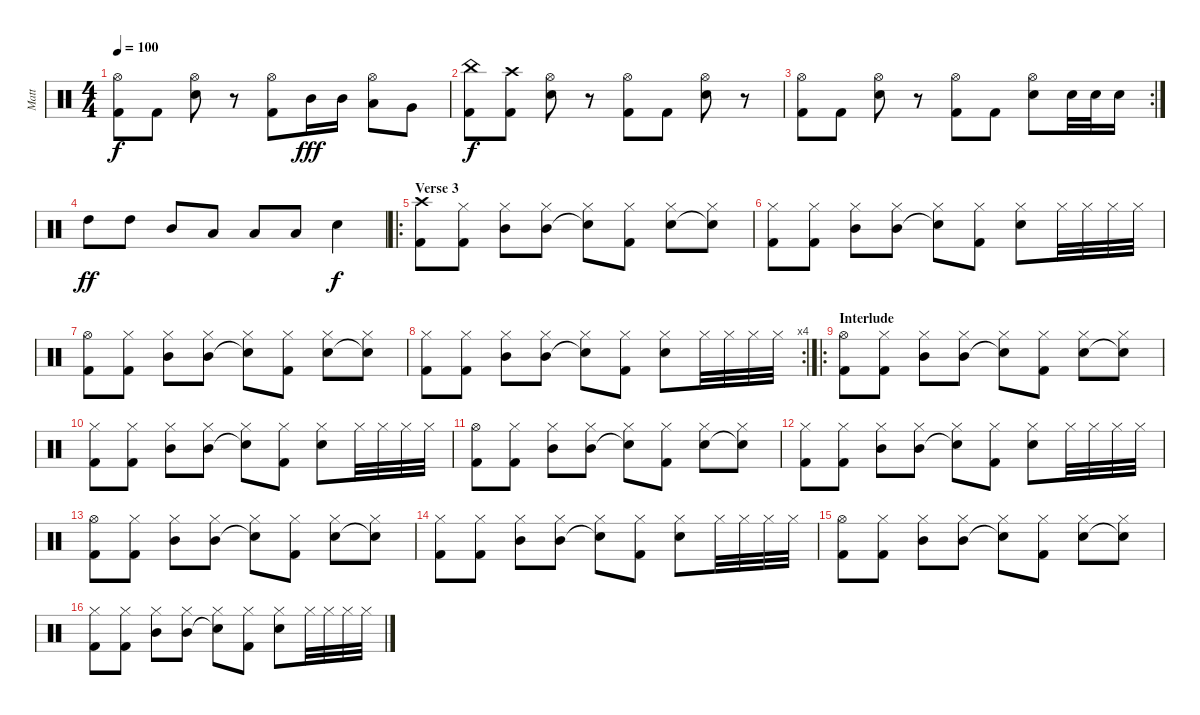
\track ("Matt" "Matt") {instrument percussion}
\staff {score}
\articulation defaults
\ts (4 4)
\tempo 100
\clef neutral
\ks c
("Hi-Hat (open)" "Kick (hit) 2").8{dy f} "Kick (hit) 2".8 ("Hi-Hat (open)" "Electric Snare (hit)").8 r.8 ("Hi-Hat (open)" "Kick (hit) 2").8 "Mid Tom (hit)".16{dy fff} "Mid Tom (hit)".16 ("Hi-Hat (open)" "Low Tom (hit)").8 "Very Low Tom (hit)".8 |
("China (hit)" "Kick (hit) 2").8{dy f} ("Crash high (hit)" "Kick (hit) 2").8 ("Hi-Hat (open)" "Electric Snare (hit)").8 r.8 ("Hi-Hat (open)" "Kick (hit) 2").8 "Kick (hit) 2".8 ("Hi-Hat (open)" "Electric Snare (hit)").8 r.8 |
\rc 2
("Hi-Hat (open)" "Kick (hit) 2").8 "Kick (hit) 2".8 ("Hi-Hat (open)" "Electric Snare (hit)").8 r.8 ("Hi-Hat (open)" "Kick (hit) 2").8 "Kick (hit) 2".8 ("Hi-Hat (open)" "Electric Snare (hit)").8 "Electric Snare (hit)".32 "Electric Snare (hit)".32 "Electric Snare (hit)".16 |
"High Tom (hit)".8{dy ff} "High Tom (hit)".8 "Mid Tom (hit)".8 "Low Tom (hit)".8 "Low Tom (hit)".8 "Low Floor Tom (hit)".8 "Snare (hit) 2".4{dy f} |
\ro
\section ("" "Verse 3")
("Crash high (hit)" "Kick (hit) 2").8 ("Hi-Hat (closed)" "Kick (hit) 2").8 ("Hi-Hat (closed)" "Mid Tom (hit)").8 ("Hi-Hat (closed)" "Mid Tom (hit)").8 ("Hi-Hat (closed)" "Snare (hit)"{t}).8 ("Hi-Hat (closed)" "Kick (hit) 2").8 ("Hi-Hat (closed)" "Electric Snare (hit)").8 ("Hi-Hat (closed)" "Snare (hit)"{t}).8 |
("Hi-Hat (closed)" "Kick (hit) 2").8 ("Hi-Hat (closed)" "Kick (hit) 2").8 ("Hi-Hat (closed)" "Mid Tom (hit)").8 ("Hi-Hat (closed)" "Mid Tom (hit)").8 ("Hi-Hat (closed)" "Snare (hit)"{t}).8 ("Hi-Hat (closed)" "Kick (hit) 2").8 ("Hi-Hat (closed)" "Electric Snare (hit)").8 "Hi-Hat (closed)".32 "Hi-Hat (closed)".32 "Hi-Hat (closed)".32 "Hi-Hat (closed)".32 |
("Hi-Hat (open)" "Kick (hit) 2").8 ("Hi-Hat (closed)" "Kick (hit) 2").8 ("Hi-Hat (closed)" "Mid Tom (hit)").8 ("Hi-Hat (closed)" "Mid Tom (hit)").8 ("Hi-Hat (closed)" "Snare (hit)"{t}).8 ("Hi-Hat (closed)" "Kick (hit) 2").8 ("Hi-Hat (closed)" "Electric Snare (hit)").8 ("Hi-Hat (closed)" "Snare (hit)"{t}).8 |
\rc 4
("Hi-Hat (closed)" "Kick (hit) 2").8 ("Hi-Hat (closed)" "Kick (hit) 2").8 ("Hi-Hat (closed)" "Mid Tom (hit)").8 ("Hi-Hat (closed)" "Mid Tom (hit)").8 ("Hi-Hat (closed)" "Snare (hit)"{t}).8 ("Hi-Hat (closed)" "Kick (hit) 2").8 ("Hi-Hat (closed)" "Electric Snare (hit)").8 "Hi-Hat (closed)".32 "Hi-Hat (closed)".32 "Hi-Hat (closed)".32 "Hi-Hat (closed)".32 |
\ro
\section ("" "Interlude")
("Hi-Hat (open)" "Kick (hit) 2").8 ("Hi-Hat (closed)" "Kick (hit) 2").8 ("Hi-Hat (closed)" "Mid Tom (hit)").8 ("Hi-Hat (closed)" "Mid Tom (hit)").8 ("Hi-Hat (closed)" "Snare (hit)"{t}).8 ("Hi-Hat (closed)" "Kick (hit) 2").8 ("Hi-Hat (closed)" "Electric Snare (hit)").8 ("Hi-Hat (closed)" "Snare (hit)"{t}).8 |
("Hi-Hat (closed)" "Kick (hit) 2").8 ("Hi-Hat (closed)" "Kick (hit) 2").8 ("Hi-Hat (closed)" "Mid Tom (hit)").8 ("Hi-Hat (closed)" "Mid Tom (hit)").8 ("Hi-Hat (closed)" "Snare (hit)"{t}).8 ("Hi-Hat (closed)" "Kick (hit) 2").8 ("Hi-Hat (closed)" "Electric Snare (hit)").8 "Hi-Hat (closed)".32 "Hi-Hat (closed)".32 "Hi-Hat (closed)".32 "Hi-Hat (closed)".32 |
("Hi-Hat (open)" "Kick (hit) 2").8 ("Hi-Hat (closed)" "Kick (hit) 2").8 ("Hi-Hat (closed)" "Mid Tom (hit)").8 ("Hi-Hat (closed)" "Mid Tom (hit)").8 ("Hi-Hat (closed)" "Snare (hit)"{t}).8 ("Hi-Hat (closed)" "Kick (hit) 2").8 ("Hi-Hat (closed)" "Electric Snare (hit)").8 ("Hi-Hat (closed)" "Snare (hit)"{t}).8 |
("Hi-Hat (closed)" "Kick (hit) 2").8 ("Hi-Hat (closed)" "Kick (hit) 2").8 ("Hi-Hat (closed)" "Mid Tom (hit)").8 ("Hi-Hat (closed)" "Mid Tom (hit)").8 ("Hi-Hat (closed)" "Snare (hit)"{t}).8 ("Hi-Hat (closed)" "Kick (hit) 2").8 ("Hi-Hat (closed)" "Electric Snare (hit)").8 "Hi-Hat (closed)".32 "Hi-Hat (closed)".32 "Hi-Hat (closed)".32 "Hi-Hat (closed)".32 |
("Hi-Hat (open)" "Kick (hit) 2").8 ("Hi-Hat (closed)" "Kick (hit) 2").8 ("Hi-Hat (closed)" "Mid Tom (hit)").8 ("Hi-Hat (closed)" "Mid Tom (hit)").8 ("Hi-Hat (closed)" "Snare (hit)"{t}).8 ("Hi-Hat (closed)" "Kick (hit) 2").8 ("Hi-Hat (closed)" "Electric Snare (hit)").8 ("Hi-Hat (closed)" "Snare (hit)"{t}).8 |
("Hi-Hat (closed)" "Kick (hit) 2").8 ("Hi-Hat (closed)" "Kick (hit) 2").8 ("Hi-Hat (closed)" "Mid Tom (hit)").8 ("Hi-Hat (closed)" "Mid Tom (hit)").8 ("Hi-Hat (closed)" "Snare (hit)"{t}).8 ("Hi-Hat (closed)" "Kick (hit) 2").8 ("Hi-Hat (closed)" "Electric Snare (hit)").8 "Hi-Hat (closed)".32 "Hi-Hat (closed)".32 "Hi-Hat (closed)".32 "Hi-Hat (closed)".32 |
("Hi-Hat (open)" "Kick (hit) 2").8 ("Hi-Hat (closed)" "Kick (hit) 2").8 ("Hi-Hat (closed)" "Mid Tom (hit)").8 ("Hi-Hat (closed)" "Mid Tom (hit)").8 ("Hi-Hat (closed)" "Snare (hit)"{t}).8 ("Hi-Hat (closed)" "Kick (hit) 2").8 ("Hi-Hat (closed)" "Electric Snare (hit)").8 ("Hi-Hat (closed)" "Snare (hit)"{t}).8 |
("Hi-Hat (closed)" "Kick (hit) 2").8 ("Hi-Hat (closed)" "Kick (hit) 2").8 ("Hi-Hat (closed)" "Mid Tom (hit)").8 ("Hi-Hat (closed)" "Mid Tom (hit)").8 ("Hi-Hat (closed)" "Snare (hit)"{t}).8 ("Hi-Hat (closed)" "Kick (hit) 2").8 ("Hi-Hat (closed)" "Electric Snare (hit)").8 "Hi-Hat (closed)".32 "Hi-Hat (closed)".32 "Hi-Hat (closed)".32 "Hi-Hat (closed)".32
